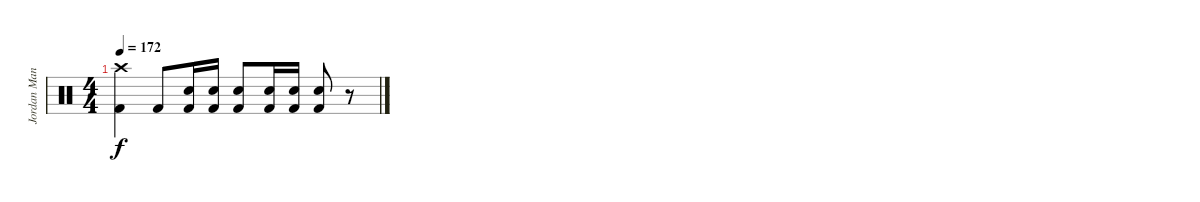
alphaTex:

\track ("Jordan Mancino" "Jordan Man") {instrument percussion}
\staff {score}
\articulation defaults
\ts (4 4)
\tempo 172
\clef neutral
\ks c
("Crash high (hit)" "Kick (hit) 2").4{dy f} "Kick (hit) 2".8 ("Electric Snare (hit)" "Kick (hit) 2").16 ("Electric Snare (hit)" "Kick (hit) 2").16 ("Electric Snare (hit)" "Kick (hit) 2").8 ("Electric Snare (hit)" "Kick (hit) 2").16 ("Electric Snare (hit)" "Kick (hit) 2").16 ("Electric Snare (hit)" "Kick (hit) 2").8 r.8
